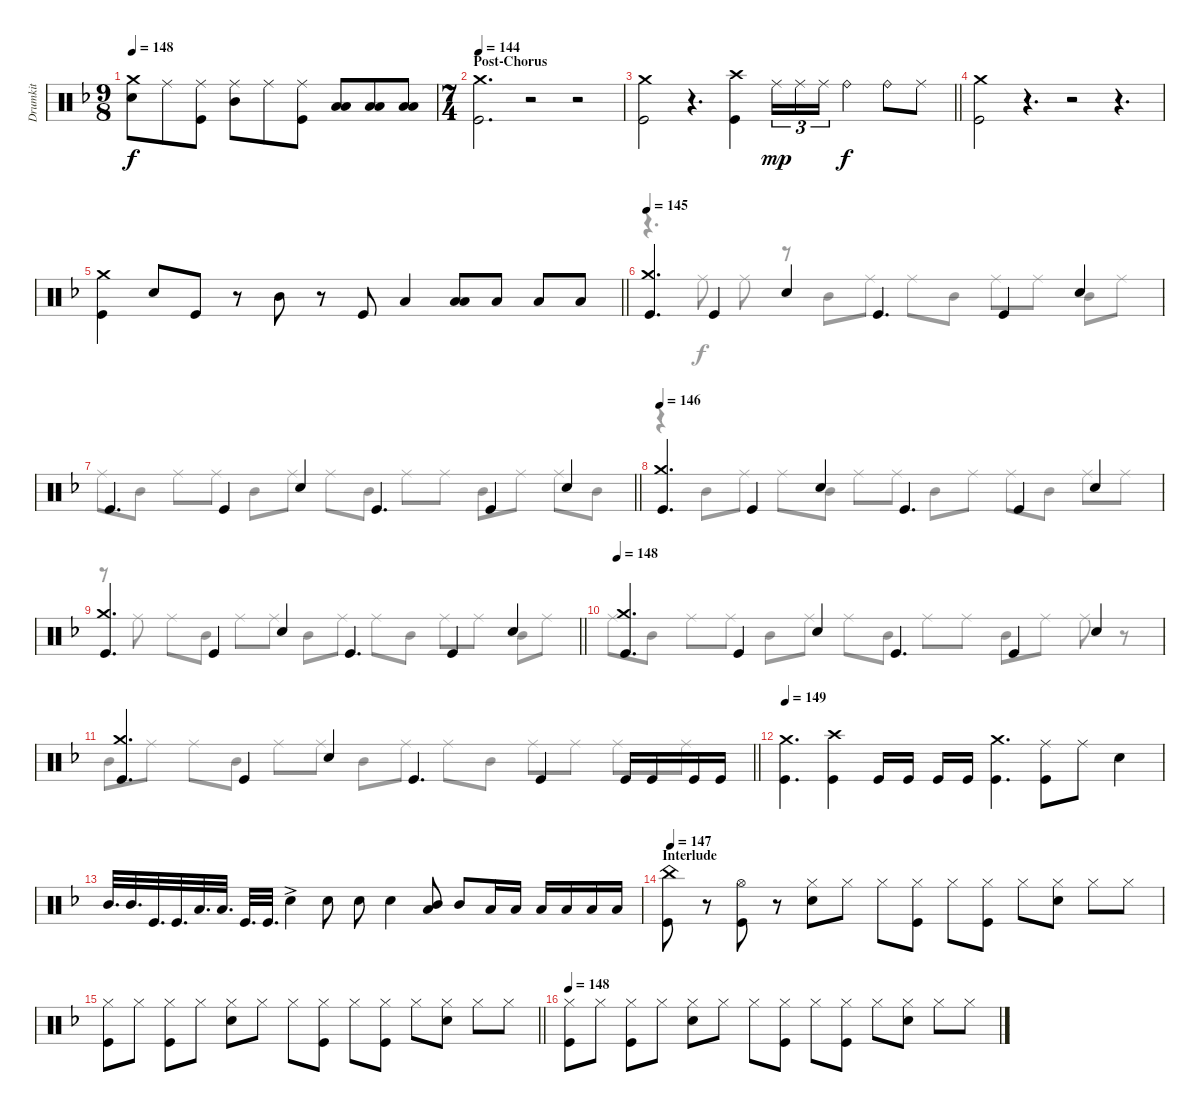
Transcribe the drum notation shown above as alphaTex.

\track ("Drumkit" "Drumkit") {instrument percussion}
\staff {score}
\articulation defaults
\voice
\ts (9 8)
\tempo 148
\clef neutral
\ks dminor
("Crash medium (hit)" "Snare (hit) 2").8{dy f} "Ride (middle)".8 ("Ride (middle)" "Kick (hit)").8 ("Ride (middle)" "Mid Tom (hit)").8 "Ride (middle)".8 ("Ride (middle)" "Kick (hit)").8 ("Low Tom (hit)" "Low Floor Tom (hit)").8 ("Low Tom (hit)" "Low Floor Tom (hit)").8 ("Low Tom (hit)" "Low Floor Tom (hit)").8 |
\ts (7 4)
\section ("" "Post-Chorus")
\tempo 144
("Crash medium (hit)" "Kick (hit)").2{d} r.2 r.2 |
\barLineRight lightlight
("Crash medium (hit)" "Kick (hit)").2 r.4{d} ("Crash high (hit)" "Kick (hit)").4 "Ride (middle)".16{tu (3 2) dy mp} "Ride (middle)".16{tu (3 2)} "Ride (middle)".16{tu (3 2)} "Ride (bell)".4{dy f} "Ride (bell)".8 "Ride (middle)".8 |
("Crash medium (hit)" "Kick (hit)").2 r.4{d} r.2 r.4{d} |
\barLineRight lightlight
("Kick (hit)" "Crash medium (hit)").4 "Snare (hit) 2".8 "Kick (hit)".8 r.8 "Mid Tom (hit)".8 r.8 "Kick (hit)".8 "Low Tom (hit)".4 ("Low Tom (hit)" "Low Floor Tom (hit)").8 "Low Floor Tom (hit)".8 "Low Floor Tom (hit)".8 "Low Floor Tom (hit)".8 |
\tempo 145
("Kick (hit)" "Crash medium (hit)").4{d} "Kick (hit)".4 "Snare (hit) 2".4 "Kick (hit)".4{d} "Kick (hit)".4 "Snare (hit) 2".4 |
\barLineRight lightlight "Kick (hit)".4{d} "Kick (hit)".4 "Snare (hit) 2".4 "Kick (hit)".4{d} "Kick (hit)".4 "Snare (hit) 2".4
|
\tempo 146
("Kick (hit)" "Crash medium (hit)").4{d} "Kick (hit)".4 "Snare (hit) 2".4 "Kick (hit)".4{d} "Kick (hit)".4 "Snare (hit) 2".4 |
\barLineRight lightlight
("Kick (hit)" "Crash medium (hit)").4{d} "Kick (hit)".4 "Snare (hit) 2".4 "Kick (hit)".4{d} "Kick (hit)".4 "Snare (hit) 2".4 |
\tempo 148
("Kick (hit)" "Crash medium (hit)").4{d} "Kick (hit)".4 "Snare (hit) 2".4 "Kick (hit)".4{d} "Kick (hit)".4 "Snare (hit) 2".4 |
\barLineRight lightlight
("Kick (hit)" "Crash medium (hit)").4{d} "Kick (hit)".4 "Snare (hit) 2".4 "Kick (hit)".4{d} "Kick (hit)".4 "Kick (hit)".16 "Kick (hit)".16 "Kick (hit)".16 "Kick (hit)".16 |
\tempo 149
("Kick (hit)" "Crash medium (hit)").4{d} ("Kick (hit)" "Crash high (hit)").4 "Kick (hit)".16 "Kick (hit)".16 "Kick (hit)".16 "Kick (hit)".16 ("Kick (hit)" "Crash medium (hit)").4{d} ("Kick (hit)" "Ride (middle)").8 "Ride (middle)".8 "Snare (hit) 2".4 |
"Mid Tom (hit)".32{d} "Mid Tom (hit)".32{d} "Kick (hit)".32{d} "Kick (hit)".32{d} "Low Tom (hit)".32{d} "Low Tom (hit)".32{d} "Kick (hit)".32{d} "Kick (hit)".32{d} "Snare (hit) 2"{ac}.4 "Snare (hit) 2".8 "Snare (hit) 2".8 "Snare (hit) 2".4 ("Low Tom (hit)" "Mid Tom (hit)").8 "Mid Tom (hit)".8 "Low Tom (hit)".16 "Low Tom (hit)".16 "Low Tom (hit)".16 "Low Tom (hit)".16 "Low Floor Tom (hit)".16 "Low Floor Tom (hit)".16 |
\section ("" "Interlude")
\tempo 147
("Kick (hit)" "China (hit)").8 r.8 ("Kick (hit)" "Hi-Hat (open)").8 r.8 ("Snare (hit) 2" "Hi-Hat (closed)").8 "Hi-Hat (closed)".8 "Hi-Hat (closed)".8 ("Kick (hit)" "Hi-Hat (closed)").8 "Hi-Hat (closed)".8 ("Kick (hit)" "Hi-Hat (closed)").8 "Hi-Hat (closed)".8 ("Snare (hit) 2" "Hi-Hat (closed)").8 "Hi-Hat (closed)".8 "Hi-Hat (closed)".8 |
\barLineRight lightlight
("Kick (hit)" "Hi-Hat (closed)").8 "Hi-Hat (closed)".8 ("Kick (hit)" "Hi-Hat (closed)").8 "Hi-Hat (closed)".8 ("Snare (hit) 2" "Hi-Hat (closed)").8 "Hi-Hat (closed)".8 "Hi-Hat (closed)".8 ("Kick (hit)" "Hi-Hat (closed)").8 "Hi-Hat (closed)".8 ("Kick (hit)" "Hi-Hat (closed)").8 "Hi-Hat (closed)".8 ("Snare (hit) 2" "Hi-Hat (closed)").8 "Hi-Hat (closed)".8 "Hi-Hat (closed)".8 |
\tempo 148
("Kick (hit)" "Hi-Hat (closed)").8 "Hi-Hat (closed)".8 ("Kick (hit)" "Hi-Hat (closed)").8 "Hi-Hat (closed)".8 ("Snare (hit) 2" "Hi-Hat (closed)").8 "Hi-Hat (closed)".8 "Hi-Hat (closed)".8 ("Kick (hit)" "Hi-Hat (closed)").8 "Hi-Hat (closed)".8 ("Kick (hit)" "Hi-Hat (closed)").8 "Hi-Hat (closed)".8 ("Snare (hit) 2" "Hi-Hat (closed)").8 "Hi-Hat (closed)".8 "Hi-Hat (closed)".8
\voice
\clef neutral
\ottava regular
\simile none
\ks dminor
|
|
\barLineRight lightlight
|
|
\barLineRight lightlight
|
r.4{d} "Ride (middle)".8 "Ride (middle)".8 r.8 "Mid Tom (hit)".8 "Ride (middle)".8 "Ride (middle)".8 "Mid Tom (hit)".8 "Ride (middle)".8 "Ride (middle)".8 "Mid Tom (hit)".8 "Ride (middle)".8 |
\barLineRight lightlight "Ride (middle)".8 "Mid Tom (hit)".8 "Ride (middle)".8 "Ride (middle)".8 "Mid Tom (hit)".8 "Ride (middle)".8 "Ride (middle)".8 "Mid Tom (hit)".8 "Ride (middle)".8 "Ride (middle)".8 "Mid Tom (hit)".8 "Ride (middle)".8 "Ride (middle)".8 "Mid Tom (hit)".8
|
r.4 "Mid Tom (hit)".8 "Ride (middle)".8 "Ride (middle)".8 "Mid Tom (hit)".8 "Ride (middle)".8 "Ride (middle)".8 "Mid Tom (hit)".8 "Ride (middle)".8 "Ride (middle)".8 "Mid Tom (hit)".8 "Ride (middle)".8 "Ride (middle)".8 |
\barLineRight lightlight
r.8 "Ride (middle)".8 "Ride (middle)".8 "Mid Tom (hit)".8 "Ride (middle)".8 "Ride (middle)".8 "Mid Tom (hit)".8 "Ride (middle)".8 "Ride (middle)".8 "Mid Tom (hit)".8 "Ride (middle)".8 "Ride (middle)".8 "Mid Tom (hit)".8 "Ride (middle)".8 |
"Ride (middle)".8 "Mid Tom (hit)".8 "Ride (middle)".8 "Ride (middle)".8 "Mid Tom (hit)".8 "Ride (middle)".8 "Ride (middle)".8 "Mid Tom (hit)".8 "Ride (middle)".8 "Ride (middle)".8 "Mid Tom (hit)".8 "Ride (middle)".8 "Ride (middle)".8 r.8 |
\barLineRight lightlight "Mid Tom (hit)".8 "Ride (middle)".8 "Ride (middle)".8 "Mid Tom (hit)".8 "Ride (middle)".8 "Ride (middle)".8 "Mid Tom (hit)".8 "Ride (middle)".8 "Ride (middle)".8 "Mid Tom (hit)".8 "Ride (middle)".8 "Ride (middle)".8 "Ride (middle)".8 "Ride (middle)".8
|
|
|
|
\barLineRight lightlight
|
